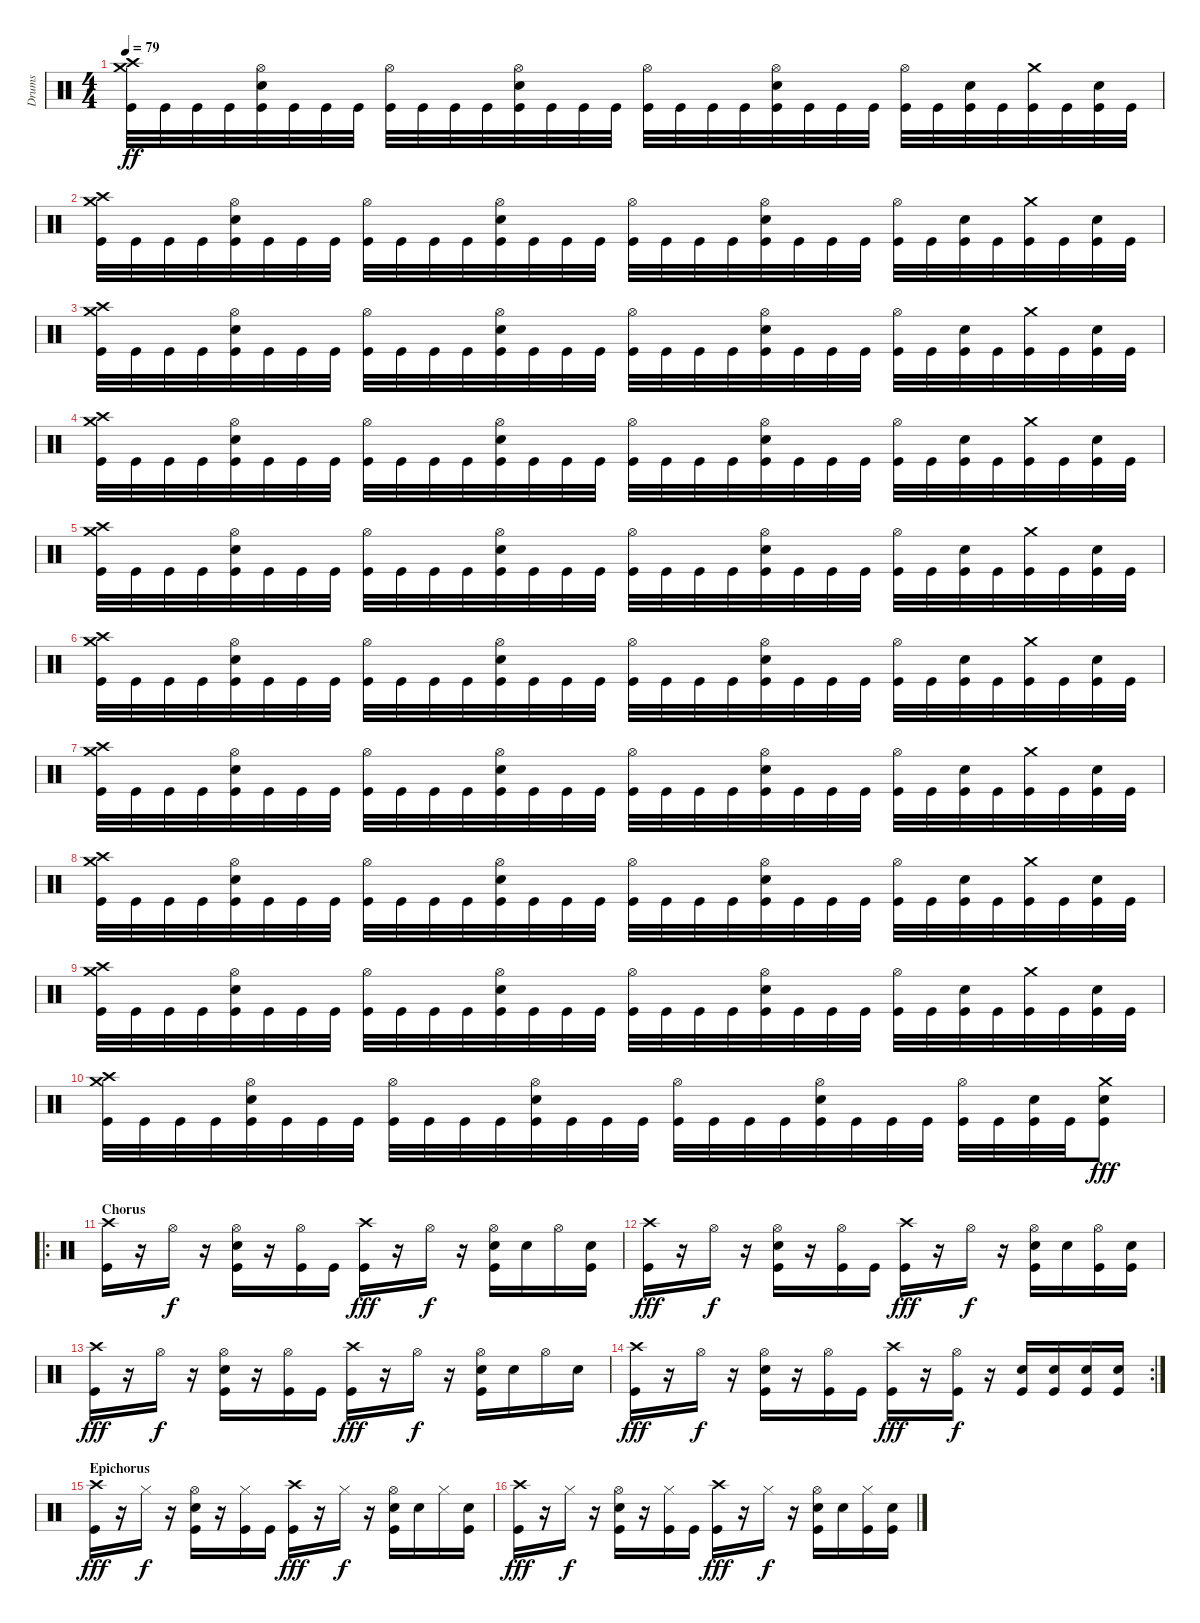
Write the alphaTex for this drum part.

\track ("Drums" "Drums") {instrument percussion}
\staff {score}
\articulation defaults
\ts (4 4)
\tempo 79
\clef neutral
\ks c
("Crash high (hit)" "Crash medium (hit)" "Kick (hit)").32{dy ff} "Kick (hit)".32 "Kick (hit)".32 "Kick (hit)".32 ("Hi-Hat (open)" "Electric Snare (hit)" "Kick (hit)").32 "Kick (hit)".32 "Kick (hit)".32 "Kick (hit)".32 ("Hi-Hat (open)" "Kick (hit)").32 "Kick (hit)".32 "Kick (hit)".32 "Kick (hit)".32 ("Hi-Hat (open)" "Electric Snare (hit)" "Kick (hit)").32 "Kick (hit)".32 "Kick (hit)".32 "Kick (hit)".32 ("Hi-Hat (open)" "Kick (hit)").32 "Kick (hit)".32 "Kick (hit)".32 "Kick (hit)".32 ("Hi-Hat (open)" "Electric Snare (hit)" "Kick (hit)").32 "Kick (hit)".32 "Kick (hit)".32 "Kick (hit)".32 ("Hi-Hat (open)" "Kick (hit)").32 "Kick (hit)".32 ("Electric Snare (hit)" "Kick (hit)").32 "Kick (hit)".32 ("Crash medium (hit)" "Kick (hit)").32 "Kick (hit)".32 ("Electric Snare (hit)" "Kick (hit)").32 "Kick (hit)".32 |
("Crash high (hit)" "Crash medium (hit)" "Kick (hit)").32 "Kick (hit)".32 "Kick (hit)".32 "Kick (hit)".32 ("Hi-Hat (open)" "Electric Snare (hit)" "Kick (hit)").32 "Kick (hit)".32 "Kick (hit)".32 "Kick (hit)".32 ("Hi-Hat (open)" "Kick (hit)").32 "Kick (hit)".32 "Kick (hit)".32 "Kick (hit)".32 ("Hi-Hat (open)" "Electric Snare (hit)" "Kick (hit)").32 "Kick (hit)".32 "Kick (hit)".32 "Kick (hit)".32 ("Hi-Hat (open)" "Kick (hit)").32 "Kick (hit)".32 "Kick (hit)".32 "Kick (hit)".32 ("Hi-Hat (open)" "Electric Snare (hit)" "Kick (hit)").32 "Kick (hit)".32 "Kick (hit)".32 "Kick (hit)".32 ("Hi-Hat (open)" "Kick (hit)").32 "Kick (hit)".32 ("Electric Snare (hit)" "Kick (hit)").32 "Kick (hit)".32 ("Crash medium (hit)" "Kick (hit)").32 "Kick (hit)".32 ("Electric Snare (hit)" "Kick (hit)").32 "Kick (hit)".32 |
("Crash high (hit)" "Crash medium (hit)" "Kick (hit)").32 "Kick (hit)".32 "Kick (hit)".32 "Kick (hit)".32 ("Hi-Hat (open)" "Electric Snare (hit)" "Kick (hit)").32 "Kick (hit)".32 "Kick (hit)".32 "Kick (hit)".32 ("Hi-Hat (open)" "Kick (hit)").32 "Kick (hit)".32 "Kick (hit)".32 "Kick (hit)".32 ("Hi-Hat (open)" "Electric Snare (hit)" "Kick (hit)").32 "Kick (hit)".32 "Kick (hit)".32 "Kick (hit)".32 ("Hi-Hat (open)" "Kick (hit)").32 "Kick (hit)".32 "Kick (hit)".32 "Kick (hit)".32 ("Hi-Hat (open)" "Electric Snare (hit)" "Kick (hit)").32 "Kick (hit)".32 "Kick (hit)".32 "Kick (hit)".32 ("Hi-Hat (open)" "Kick (hit)").32 "Kick (hit)".32 ("Electric Snare (hit)" "Kick (hit)").32 "Kick (hit)".32 ("Crash medium (hit)" "Kick (hit)").32 "Kick (hit)".32 ("Electric Snare (hit)" "Kick (hit)").32 "Kick (hit)".32 |
("Crash high (hit)" "Crash medium (hit)" "Kick (hit)").32 "Kick (hit)".32 "Kick (hit)".32 "Kick (hit)".32 ("Hi-Hat (open)" "Electric Snare (hit)" "Kick (hit)").32 "Kick (hit)".32 "Kick (hit)".32 "Kick (hit)".32 ("Hi-Hat (open)" "Kick (hit)").32 "Kick (hit)".32 "Kick (hit)".32 "Kick (hit)".32 ("Hi-Hat (open)" "Electric Snare (hit)" "Kick (hit)").32 "Kick (hit)".32 "Kick (hit)".32 "Kick (hit)".32 ("Hi-Hat (open)" "Kick (hit)").32 "Kick (hit)".32 "Kick (hit)".32 "Kick (hit)".32 ("Hi-Hat (open)" "Electric Snare (hit)" "Kick (hit)").32 "Kick (hit)".32 "Kick (hit)".32 "Kick (hit)".32 ("Hi-Hat (open)" "Kick (hit)").32 "Kick (hit)".32 ("Electric Snare (hit)" "Kick (hit)").32 "Kick (hit)".32 ("Crash medium (hit)" "Kick (hit)").32 "Kick (hit)".32 ("Electric Snare (hit)" "Kick (hit)").32 "Kick (hit)".32 |
("Crash high (hit)" "Crash medium (hit)" "Kick (hit)").32 "Kick (hit)".32 "Kick (hit)".32 "Kick (hit)".32 ("Hi-Hat (open)" "Electric Snare (hit)" "Kick (hit)").32 "Kick (hit)".32 "Kick (hit)".32 "Kick (hit)".32 ("Hi-Hat (open)" "Kick (hit)").32 "Kick (hit)".32 "Kick (hit)".32 "Kick (hit)".32 ("Hi-Hat (open)" "Electric Snare (hit)" "Kick (hit)").32 "Kick (hit)".32 "Kick (hit)".32 "Kick (hit)".32 ("Hi-Hat (open)" "Kick (hit)").32 "Kick (hit)".32 "Kick (hit)".32 "Kick (hit)".32 ("Hi-Hat (open)" "Electric Snare (hit)" "Kick (hit)").32 "Kick (hit)".32 "Kick (hit)".32 "Kick (hit)".32 ("Hi-Hat (open)" "Kick (hit)").32 "Kick (hit)".32 ("Electric Snare (hit)" "Kick (hit)").32 "Kick (hit)".32 ("Crash medium (hit)" "Kick (hit)").32 "Kick (hit)".32 ("Electric Snare (hit)" "Kick (hit)").32 "Kick (hit)".32 |
("Crash high (hit)" "Crash medium (hit)" "Kick (hit)").32 "Kick (hit)".32 "Kick (hit)".32 "Kick (hit)".32 ("Hi-Hat (open)" "Electric Snare (hit)" "Kick (hit)").32 "Kick (hit)".32 "Kick (hit)".32 "Kick (hit)".32 ("Hi-Hat (open)" "Kick (hit)").32 "Kick (hit)".32 "Kick (hit)".32 "Kick (hit)".32 ("Hi-Hat (open)" "Electric Snare (hit)" "Kick (hit)").32 "Kick (hit)".32 "Kick (hit)".32 "Kick (hit)".32 ("Hi-Hat (open)" "Kick (hit)").32 "Kick (hit)".32 "Kick (hit)".32 "Kick (hit)".32 ("Hi-Hat (open)" "Electric Snare (hit)" "Kick (hit)").32 "Kick (hit)".32 "Kick (hit)".32 "Kick (hit)".32 ("Hi-Hat (open)" "Kick (hit)").32 "Kick (hit)".32 ("Electric Snare (hit)" "Kick (hit)").32 "Kick (hit)".32 ("Crash medium (hit)" "Kick (hit)").32 "Kick (hit)".32 ("Electric Snare (hit)" "Kick (hit)").32 "Kick (hit)".32 |
("Crash high (hit)" "Crash medium (hit)" "Kick (hit)").32 "Kick (hit)".32 "Kick (hit)".32 "Kick (hit)".32 ("Hi-Hat (open)" "Electric Snare (hit)" "Kick (hit)").32 "Kick (hit)".32 "Kick (hit)".32 "Kick (hit)".32 ("Hi-Hat (open)" "Kick (hit)").32 "Kick (hit)".32 "Kick (hit)".32 "Kick (hit)".32 ("Hi-Hat (open)" "Electric Snare (hit)" "Kick (hit)").32 "Kick (hit)".32 "Kick (hit)".32 "Kick (hit)".32 ("Hi-Hat (open)" "Kick (hit)").32 "Kick (hit)".32 "Kick (hit)".32 "Kick (hit)".32 ("Hi-Hat (open)" "Electric Snare (hit)" "Kick (hit)").32 "Kick (hit)".32 "Kick (hit)".32 "Kick (hit)".32 ("Hi-Hat (open)" "Kick (hit)").32 "Kick (hit)".32 ("Electric Snare (hit)" "Kick (hit)").32 "Kick (hit)".32 ("Crash medium (hit)" "Kick (hit)").32 "Kick (hit)".32 ("Electric Snare (hit)" "Kick (hit)").32 "Kick (hit)".32 |
("Crash high (hit)" "Crash medium (hit)" "Kick (hit)").32 "Kick (hit)".32 "Kick (hit)".32 "Kick (hit)".32 ("Hi-Hat (open)" "Electric Snare (hit)" "Kick (hit)").32 "Kick (hit)".32 "Kick (hit)".32 "Kick (hit)".32 ("Hi-Hat (open)" "Kick (hit)").32 "Kick (hit)".32 "Kick (hit)".32 "Kick (hit)".32 ("Hi-Hat (open)" "Electric Snare (hit)" "Kick (hit)").32 "Kick (hit)".32 "Kick (hit)".32 "Kick (hit)".32 ("Hi-Hat (open)" "Kick (hit)").32 "Kick (hit)".32 "Kick (hit)".32 "Kick (hit)".32 ("Hi-Hat (open)" "Electric Snare (hit)" "Kick (hit)").32 "Kick (hit)".32 "Kick (hit)".32 "Kick (hit)".32 ("Hi-Hat (open)" "Kick (hit)").32 "Kick (hit)".32 ("Electric Snare (hit)" "Kick (hit)").32 "Kick (hit)".32 ("Crash medium (hit)" "Kick (hit)").32 "Kick (hit)".32 ("Electric Snare (hit)" "Kick (hit)").32 "Kick (hit)".32 |
("Crash high (hit)" "Crash medium (hit)" "Kick (hit)").32 "Kick (hit)".32 "Kick (hit)".32 "Kick (hit)".32 ("Hi-Hat (open)" "Electric Snare (hit)" "Kick (hit)").32 "Kick (hit)".32 "Kick (hit)".32 "Kick (hit)".32 ("Hi-Hat (open)" "Kick (hit)").32 "Kick (hit)".32 "Kick (hit)".32 "Kick (hit)".32 ("Hi-Hat (open)" "Electric Snare (hit)" "Kick (hit)").32 "Kick (hit)".32 "Kick (hit)".32 "Kick (hit)".32 ("Hi-Hat (open)" "Kick (hit)").32 "Kick (hit)".32 "Kick (hit)".32 "Kick (hit)".32 ("Hi-Hat (open)" "Electric Snare (hit)" "Kick (hit)").32 "Kick (hit)".32 "Kick (hit)".32 "Kick (hit)".32 ("Hi-Hat (open)" "Kick (hit)").32 "Kick (hit)".32 ("Electric Snare (hit)" "Kick (hit)").32 "Kick (hit)".32 ("Crash medium (hit)" "Kick (hit)").32 "Kick (hit)".32 ("Electric Snare (hit)" "Kick (hit)").32 "Kick (hit)".32 |
("Crash high (hit)" "Crash medium (hit)" "Kick (hit)").32 "Kick (hit)".32 "Kick (hit)".32 "Kick (hit)".32 ("Hi-Hat (open)" "Electric Snare (hit)" "Kick (hit)").32 "Kick (hit)".32 "Kick (hit)".32 "Kick (hit)".32 ("Hi-Hat (open)" "Kick (hit)").32 "Kick (hit)".32 "Kick (hit)".32 "Kick (hit)".32 ("Hi-Hat (open)" "Electric Snare (hit)" "Kick (hit)").32 "Kick (hit)".32 "Kick (hit)".32 "Kick (hit)".32 ("Hi-Hat (open)" "Kick (hit)").32 "Kick (hit)".32 "Kick (hit)".32 "Kick (hit)".32 ("Hi-Hat (open)" "Electric Snare (hit)" "Kick (hit)").32 "Kick (hit)".32 "Kick (hit)".32 "Kick (hit)".32 ("Hi-Hat (open)" "Kick (hit)").32 "Kick (hit)".32 ("Electric Snare (hit)" "Kick (hit)").32 "Kick (hit)".32 ("Crash medium (hit)" "Electric Snare (hit)" "Kick (hit)").8{dy fff} |
\ro
\section ("" "Chorus")
("Crash high (hit)" "Kick (hit)").16{volume 13} r.16 "Hi-Hat (open)".16{dy f} r.16 ("Hi-Hat (open)" "Electric Snare (hit)" "Kick (hit)").16 r.16 ("Hi-Hat (open)" "Kick (hit)").16 "Kick (hit)".16 ("Crash high (hit)" "Kick (hit)").16{dy fff} r.16 "Hi-Hat (open)".16{dy f} r.16 ("Hi-Hat (open)" "Electric Snare (hit)" "Kick (hit)").16 "Electric Snare (hit)".16 "Hi-Hat (open)".16 ("Electric Snare (hit)" "Kick (hit)").16 |
("Crash high (hit)" "Kick (hit)").16{dy fff} r.16 "Hi-Hat (open)".16{dy f} r.16 ("Hi-Hat (open)" "Electric Snare (hit)" "Kick (hit)").16 r.16 ("Hi-Hat (open)" "Kick (hit)").16 "Kick (hit)".16 ("Crash high (hit)" "Kick (hit)").16{dy fff} r.16 "Hi-Hat (open)".16{dy f} r.16 ("Hi-Hat (open)" "Electric Snare (hit)" "Kick (hit)").16 "Electric Snare (hit)".16 ("Hi-Hat (open)" "Kick (hit)").16 ("Electric Snare (hit)" "Kick (hit)").16 |
("Crash high (hit)" "Kick (hit)").16{dy fff} r.16 "Hi-Hat (open)".16{dy f} r.16 ("Hi-Hat (open)" "Electric Snare (hit)" "Kick (hit)").16 r.16 ("Hi-Hat (open)" "Kick (hit)").16 "Kick (hit)".16 ("Crash high (hit)" "Kick (hit)").16{dy fff} r.16 "Hi-Hat (open)".16{dy f} r.16 ("Hi-Hat (open)" "Electric Snare (hit)" "Kick (hit)").16 "Electric Snare (hit)".16 "Hi-Hat (open)".16 "Electric Snare (hit)".16 |
\rc 2
("Crash high (hit)" "Kick (hit)").16{dy fff} r.16 "Hi-Hat (open)".16{dy f} r.16 ("Hi-Hat (open)" "Electric Snare (hit)" "Kick (hit)").16 r.16 ("Hi-Hat (open)" "Kick (hit)").16 "Kick (hit)".16 ("Crash high (hit)" "Kick (hit)").16{dy fff} r.16 ("Hi-Hat (open)" "Kick (hit)").16{dy f} r.16 ("Electric Snare (hit)" "Kick (hit)").16 ("Electric Snare (hit)" "Kick (hit)").16 ("Electric Snare (hit)" "Kick (hit)").16 ("Electric Snare (hit)" "Kick (hit)").16 |
\section ("" "Epichorus")
("Crash high (hit)" "Kick (hit)").16{dy fff volume 11} r.16 "Hi-Hat (closed)".16{dy f} r.16 ("Hi-Hat (open)" "Electric Snare (hit)" "Kick (hit)").16 r.16 ("Hi-Hat (closed)" "Kick (hit)").16 "Kick (hit)".16 ("Crash high (hit)" "Kick (hit)").16{dy fff} r.16 "Hi-Hat (closed)".16{dy f} r.16 ("Hi-Hat (open)" "Electric Snare (hit)" "Kick (hit)").16 "Electric Snare (hit)".16 "Hi-Hat (closed)".16 ("Electric Snare (hit)" "Kick (hit)").16 |
("Crash high (hit)" "Kick (hit)").16{dy fff} r.16 "Hi-Hat (closed)".16{dy f} r.16 ("Hi-Hat (open)" "Electric Snare (hit)" "Kick (hit)").16 r.16 ("Hi-Hat (closed)" "Kick (hit)").16 "Kick (hit)".16 ("Crash high (hit)" "Kick (hit)").16{dy fff} r.16 "Hi-Hat (closed)".16{dy f} r.16 ("Hi-Hat (open)" "Electric Snare (hit)" "Kick (hit)").16 "Electric Snare (hit)".16 ("Hi-Hat (closed)" "Kick (hit)").16 ("Electric Snare (hit)" "Kick (hit)").16
